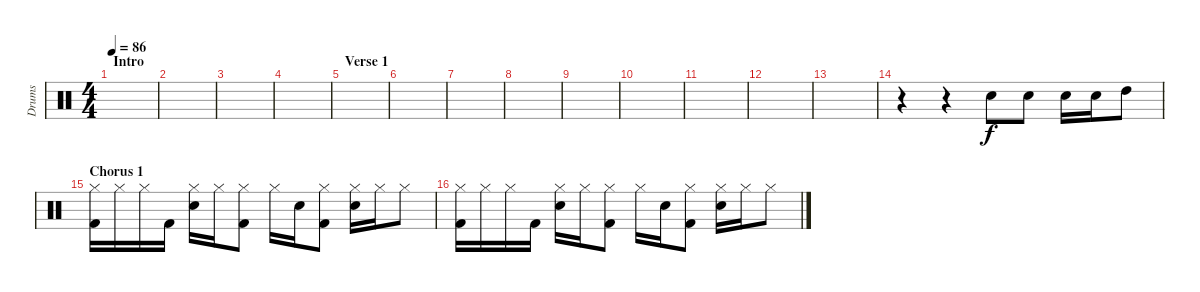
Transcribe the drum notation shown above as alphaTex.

\track ("Drums" "Drums") {instrument percussion}
\staff {score}
\articulation defaults
\ts (4 4)
\section ("" "Intro")
\tempo 86
\clef neutral
\ks c
|
|
|
|
\section ("" "Verse 1")
|
|
|
|
|
|
|
|
|
r.4 r.4 "Electric Snare (hit)".8 "Electric Snare (hit)".8 "Electric Snare (hit)".16 "Electric Snare (hit)".16 "High Tom (hit)".8 |
\section ("" "Chorus 1")
("Hi-Hat (closed)" "Kick (hit) 2").16 "Hi-Hat (closed)".16 "Hi-Hat (closed)".16 "Kick (hit) 2".16 ("Hi-Hat (closed)" "Electric Snare (hit)").16 "Hi-Hat (closed)".16 ("Hi-Hat (closed)" "Kick (hit) 2").8 "Hi-Hat (closed)".16 "Electric Snare (hit)".16 ("Hi-Hat (closed)" "Kick (hit) 2").8 ("Hi-Hat (closed)" "Electric Snare (hit)").16 "Hi-Hat (closed)".16 "Hi-Hat (closed)".8 |
("Hi-Hat (closed)" "Kick (hit) 2").16 "Hi-Hat (closed)".16 "Hi-Hat (closed)".16 "Kick (hit) 2".16 ("Hi-Hat (closed)" "Electric Snare (hit)").16 "Hi-Hat (closed)".16 ("Hi-Hat (closed)" "Kick (hit) 2").8 "Hi-Hat (closed)".16 "Electric Snare (hit)".16 ("Hi-Hat (closed)" "Kick (hit) 2").8 ("Hi-Hat (closed)" "Electric Snare (hit)").16 "Hi-Hat (closed)".16 "Hi-Hat (closed)".8
